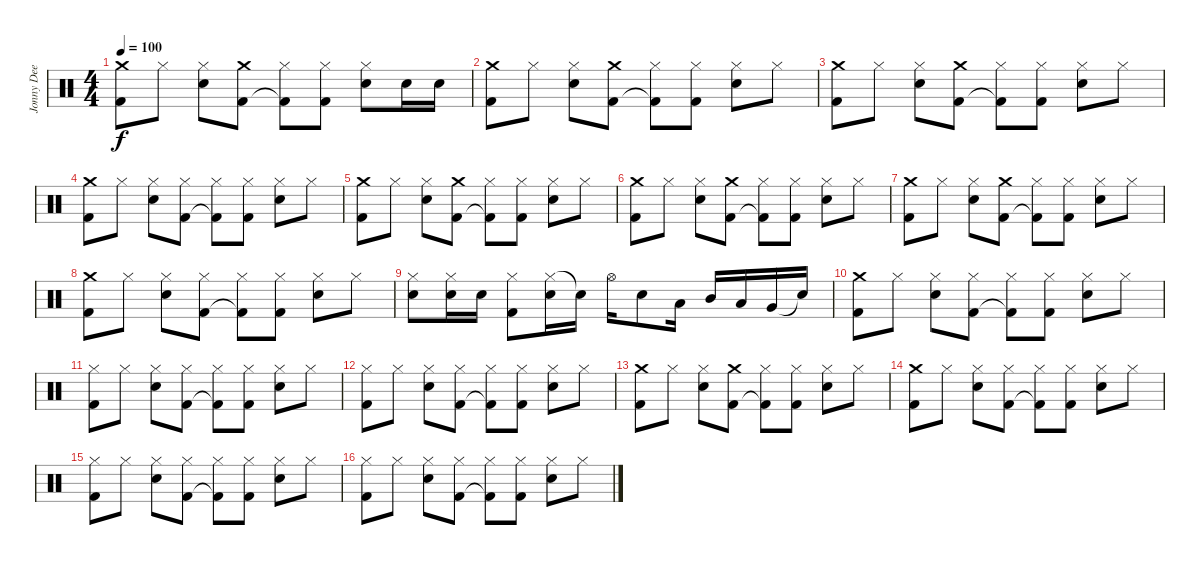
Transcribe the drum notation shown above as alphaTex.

\track ("Jonny Dee" "Jonny Dee") {instrument percussion}
\staff {score}
\articulation defaults
\ts (4 4)
\tempo 100
\clef neutral
\ks c
("Crash medium (hit)" "Kick (hit) 2").8{dy f} "Hi-Hat (closed)".8 ("Hi-Hat (closed)" "Snare (hit) 2").8 ("Crash medium (hit)" "Kick (hit) 2").8 ("Hi-Hat (closed)" "Kick (hit) 2"{t}).8 ("Hi-Hat (closed)" "Kick (hit) 2").8 ("Hi-Hat (closed)" "Snare (hit) 2").8 "Snare (hit) 2".16 "Snare (hit) 2".16 |
("Crash medium (hit)" "Kick (hit) 2").8 "Hi-Hat (closed)".8 ("Hi-Hat (closed)" "Snare (hit) 2").8 ("Crash medium (hit)" "Kick (hit) 2").8 ("Hi-Hat (closed)" "Kick (hit) 2"{t}).8 ("Hi-Hat (closed)" "Kick (hit) 2").8 ("Hi-Hat (closed)" "Snare (hit) 2").8 "Hi-Hat (closed)".8 |
("Crash medium (hit)" "Kick (hit) 2").8 "Hi-Hat (closed)".8 ("Hi-Hat (closed)" "Snare (hit) 2").8 ("Crash medium (hit)" "Kick (hit) 2").8 ("Hi-Hat (closed)" "Kick (hit) 2"{t}).8 ("Hi-Hat (closed)" "Kick (hit) 2").8 ("Hi-Hat (closed)" "Snare (hit) 2").8 "Hi-Hat (closed)".8 |
("Crash medium (hit)" "Kick (hit) 2").8 "Hi-Hat (closed)".8 ("Hi-Hat (closed)" "Snare (hit) 2").8 ("Hi-Hat (closed)" "Kick (hit) 2").8 ("Hi-Hat (closed)" "Kick (hit) 2"{t}).8 ("Hi-Hat (closed)" "Kick (hit) 2").8 ("Hi-Hat (closed)" "Snare (hit) 2").8 "Hi-Hat (closed)".8 |
("Crash medium (hit)" "Kick (hit) 2").8 "Hi-Hat (closed)".8 ("Hi-Hat (closed)" "Snare (hit) 2").8 ("Crash medium (hit)" "Kick (hit) 2").8 ("Hi-Hat (closed)" "Kick (hit) 2"{t}).8 ("Hi-Hat (closed)" "Kick (hit) 2").8 ("Hi-Hat (closed)" "Snare (hit) 2").8 "Hi-Hat (closed)".8 |
("Crash medium (hit)" "Kick (hit) 2").8 "Hi-Hat (closed)".8 ("Hi-Hat (closed)" "Snare (hit) 2").8 ("Crash medium (hit)" "Kick (hit) 2").8 ("Hi-Hat (closed)" "Kick (hit) 2"{t}).8 ("Hi-Hat (closed)" "Kick (hit) 2").8 ("Hi-Hat (closed)" "Snare (hit) 2").8 "Hi-Hat (closed)".8 |
("Crash medium (hit)" "Kick (hit) 2").8 "Hi-Hat (closed)".8 ("Hi-Hat (closed)" "Snare (hit) 2").8 ("Crash medium (hit)" "Kick (hit) 2").8 ("Hi-Hat (closed)" "Kick (hit) 2"{t}).8 ("Hi-Hat (closed)" "Kick (hit) 2").8 ("Hi-Hat (closed)" "Snare (hit) 2").8 "Hi-Hat (closed)".8 |
("Crash medium (hit)" "Kick (hit) 2").8 "Hi-Hat (closed)".8 ("Hi-Hat (closed)" "Snare (hit) 2").8 ("Hi-Hat (closed)" "Kick (hit) 2").8 ("Hi-Hat (closed)" "Kick (hit) 2"{t}).8 ("Hi-Hat (closed)" "Kick (hit) 2").8 ("Hi-Hat (closed)" "Snare (hit) 2").8 "Hi-Hat (closed)".8 |
("Hi-Hat (closed)" "Snare (hit) 2").8 ("Hi-Hat (closed)" "Snare (hit) 2").16 "Snare (hit) 2".16 ("Hi-Hat (closed)" "Kick (hit) 2").8 ("Hi-Hat (closed)" "Snare (hit) 2").16 "Snare (hit)"{t}.16 "Hi-Hat (open)".16 "Snare (hit) 2".8 "Low Tom (hit)".16 "Mid Tom (hit)".16 "Low Tom (hit)".16 "Very Low Tom (hit)".16 "Snare (hit)"{t}.16 |
("Crash medium (hit)" "Kick (hit) 2").8 "Hi-Hat (closed)".8 ("Hi-Hat (closed)" "Snare (hit) 2").8 ("Hi-Hat (closed)" "Kick (hit) 2").8 ("Hi-Hat (closed)" "Kick (hit) 2"{t}).8 ("Hi-Hat (closed)" "Kick (hit) 2").8 ("Hi-Hat (closed)" "Snare (hit) 2").8 "Hi-Hat (closed)".8 |
("Hi-Hat (closed)" "Kick (hit) 2").8 "Hi-Hat (closed)".8 ("Hi-Hat (closed)" "Snare (hit) 2").8 ("Hi-Hat (closed)" "Kick (hit) 2").8 ("Hi-Hat (closed)" "Kick (hit) 2"{t}).8 ("Hi-Hat (closed)" "Kick (hit) 2").8 ("Hi-Hat (closed)" "Snare (hit) 2").8 "Hi-Hat (closed)".8 |
("Hi-Hat (closed)" "Kick (hit) 2").8 "Hi-Hat (closed)".8 ("Hi-Hat (closed)" "Snare (hit) 2").8 ("Hi-Hat (closed)" "Kick (hit) 2").8 ("Hi-Hat (closed)" "Kick (hit) 2"{t}).8 ("Hi-Hat (closed)" "Kick (hit) 2").8 ("Hi-Hat (closed)" "Snare (hit) 2").8 "Hi-Hat (closed)".8 |
("Crash medium (hit)" "Kick (hit) 2").8 "Hi-Hat (closed)".8 ("Hi-Hat (closed)" "Snare (hit) 2").8 ("Crash medium (hit)" "Kick (hit) 2").8 ("Hi-Hat (closed)" "Kick (hit) 2"{t}).8 ("Hi-Hat (closed)" "Kick (hit) 2").8 ("Hi-Hat (closed)" "Snare (hit) 2").8 "Hi-Hat (closed)".8 |
("Crash medium (hit)" "Kick (hit) 2").8 "Hi-Hat (closed)".8 ("Hi-Hat (closed)" "Snare (hit) 2").8 ("Hi-Hat (closed)" "Kick (hit) 2").8 ("Hi-Hat (closed)" "Kick (hit) 2"{t}).8 ("Hi-Hat (closed)" "Kick (hit) 2").8 ("Hi-Hat (closed)" "Snare (hit) 2").8 "Hi-Hat (closed)".8 |
("Hi-Hat (closed)" "Kick (hit) 2").8 "Hi-Hat (closed)".8 ("Hi-Hat (closed)" "Snare (hit) 2").8 ("Hi-Hat (closed)" "Kick (hit) 2").8 ("Hi-Hat (closed)" "Kick (hit) 2"{t}).8 ("Hi-Hat (closed)" "Kick (hit) 2").8 ("Hi-Hat (closed)" "Snare (hit) 2").8 "Hi-Hat (closed)".8 |
("Hi-Hat (closed)" "Kick (hit) 2").8 "Hi-Hat (closed)".8 ("Hi-Hat (closed)" "Snare (hit) 2").8 ("Hi-Hat (closed)" "Kick (hit) 2").8 ("Hi-Hat (closed)" "Kick (hit) 2"{t}).8 ("Hi-Hat (closed)" "Kick (hit) 2").8 ("Hi-Hat (closed)" "Snare (hit) 2").8 "Hi-Hat (closed)".8
